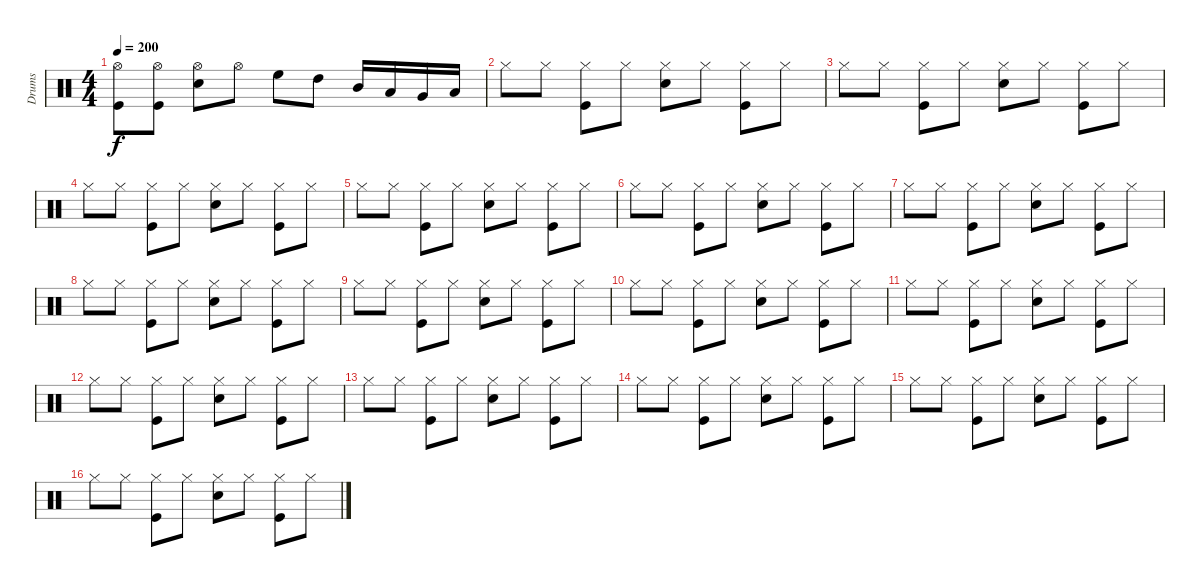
\track ("Drums" "Drums") {instrument percussion}
\staff {score}
\articulation defaults
\ts (4 4)
\tempo 200
\clef neutral
\ks c
("Kick (hit)" "Hi-Hat (open)").8{dy f} ("Kick (hit)" "Hi-Hat (open)").8 ("Electric Snare (hit)" "Hi-Hat (open)").8 "Hi-Hat (open)".8 "High Floor Tom (hit)".8 "High Tom (hit)".8 "Mid Tom (hit)".16 "Low Tom (hit)".16 "Very Low Tom (hit)".16 "Low Floor Tom (hit)".16 |
"Hi-Hat (closed)".8 "Hi-Hat (closed)".8 ("Kick (hit)" "Hi-Hat (closed)").8 "Hi-Hat (closed)".8 ("Electric Snare (hit)" "Hi-Hat (closed)").8 "Hi-Hat (closed)".8 ("Hi-Hat (closed)" "Kick (hit)").8 "Hi-Hat (closed)".8 |
"Hi-Hat (closed)".8 "Hi-Hat (closed)".8 ("Kick (hit)" "Hi-Hat (closed)").8 "Hi-Hat (closed)".8 ("Electric Snare (hit)" "Hi-Hat (closed)").8 "Hi-Hat (closed)".8 ("Hi-Hat (closed)" "Kick (hit)").8 "Hi-Hat (closed)".8 |
"Hi-Hat (closed)".8 "Hi-Hat (closed)".8 ("Kick (hit)" "Hi-Hat (closed)").8 "Hi-Hat (closed)".8 ("Electric Snare (hit)" "Hi-Hat (closed)").8 "Hi-Hat (closed)".8 ("Hi-Hat (closed)" "Kick (hit)").8 "Hi-Hat (closed)".8 |
"Hi-Hat (closed)".8 "Hi-Hat (closed)".8 ("Kick (hit)" "Hi-Hat (closed)").8 "Hi-Hat (closed)".8 ("Electric Snare (hit)" "Hi-Hat (closed)").8 "Hi-Hat (closed)".8 ("Hi-Hat (closed)" "Kick (hit)").8 "Hi-Hat (closed)".8 |
"Hi-Hat (closed)".8 "Hi-Hat (closed)".8 ("Kick (hit)" "Hi-Hat (closed)").8 "Hi-Hat (closed)".8 ("Electric Snare (hit)" "Hi-Hat (closed)").8 "Hi-Hat (closed)".8 ("Hi-Hat (closed)" "Kick (hit)").8 "Hi-Hat (closed)".8 |
"Hi-Hat (closed)".8 "Hi-Hat (closed)".8 ("Kick (hit)" "Hi-Hat (closed)").8 "Hi-Hat (closed)".8 ("Electric Snare (hit)" "Hi-Hat (closed)").8 "Hi-Hat (closed)".8 ("Hi-Hat (closed)" "Kick (hit)").8 "Hi-Hat (closed)".8 |
"Hi-Hat (closed)".8 "Hi-Hat (closed)".8 ("Kick (hit)" "Hi-Hat (closed)").8 "Hi-Hat (closed)".8 ("Electric Snare (hit)" "Hi-Hat (closed)").8 "Hi-Hat (closed)".8 ("Hi-Hat (closed)" "Kick (hit)").8 "Hi-Hat (closed)".8 |
"Hi-Hat (closed)".8 "Hi-Hat (closed)".8 ("Kick (hit)" "Hi-Hat (closed)").8 "Hi-Hat (closed)".8 ("Electric Snare (hit)" "Hi-Hat (closed)").8 "Hi-Hat (closed)".8 ("Hi-Hat (closed)" "Kick (hit)").8 "Hi-Hat (closed)".8 |
"Hi-Hat (closed)".8 "Hi-Hat (closed)".8 ("Kick (hit)" "Hi-Hat (closed)").8 "Hi-Hat (closed)".8 ("Electric Snare (hit)" "Hi-Hat (closed)").8 "Hi-Hat (closed)".8 ("Hi-Hat (closed)" "Kick (hit)").8 "Hi-Hat (closed)".8 |
"Hi-Hat (closed)".8 "Hi-Hat (closed)".8 ("Kick (hit)" "Hi-Hat (closed)").8 "Hi-Hat (closed)".8 ("Electric Snare (hit)" "Hi-Hat (closed)").8 "Hi-Hat (closed)".8 ("Hi-Hat (closed)" "Kick (hit)").8 "Hi-Hat (closed)".8 |
"Hi-Hat (closed)".8 "Hi-Hat (closed)".8 ("Kick (hit)" "Hi-Hat (closed)").8 "Hi-Hat (closed)".8 ("Electric Snare (hit)" "Hi-Hat (closed)").8 "Hi-Hat (closed)".8 ("Hi-Hat (closed)" "Kick (hit)").8 "Hi-Hat (closed)".8 |
"Hi-Hat (closed)".8 "Hi-Hat (closed)".8 ("Kick (hit)" "Hi-Hat (closed)").8 "Hi-Hat (closed)".8 ("Electric Snare (hit)" "Hi-Hat (closed)").8 "Hi-Hat (closed)".8 ("Hi-Hat (closed)" "Kick (hit)").8 "Hi-Hat (closed)".8 |
"Hi-Hat (closed)".8 "Hi-Hat (closed)".8 ("Kick (hit)" "Hi-Hat (closed)").8 "Hi-Hat (closed)".8 ("Electric Snare (hit)" "Hi-Hat (closed)").8 "Hi-Hat (closed)".8 ("Hi-Hat (closed)" "Kick (hit)").8 "Hi-Hat (closed)".8 |
"Hi-Hat (closed)".8 "Hi-Hat (closed)".8 ("Kick (hit)" "Hi-Hat (closed)").8 "Hi-Hat (closed)".8 ("Electric Snare (hit)" "Hi-Hat (closed)").8 "Hi-Hat (closed)".8 ("Hi-Hat (closed)" "Kick (hit)").8 "Hi-Hat (closed)".8 |
"Hi-Hat (closed)".8 "Hi-Hat (closed)".8 ("Kick (hit)" "Hi-Hat (closed)").8 "Hi-Hat (closed)".8 ("Electric Snare (hit)" "Hi-Hat (closed)").8 "Hi-Hat (closed)".8 ("Hi-Hat (closed)" "Kick (hit)").8 "Hi-Hat (closed)".8
